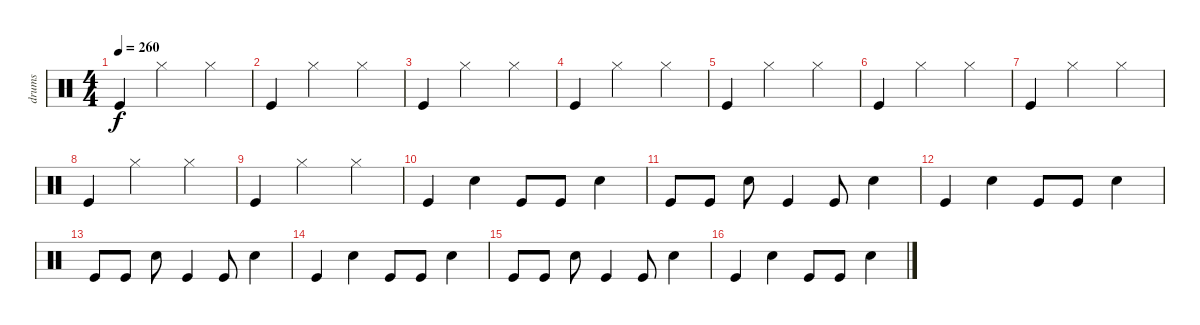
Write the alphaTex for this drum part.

\track ("drums" "drums") {instrument percussion}
\staff {score}
\articulation defaults
\ts (4 4)
\tempo 260
\clef neutral
\ks c "Kick (hit)".4{dy f} "Hi-Hat (closed)".2 "Hi-Hat (closed)".4
|
"Kick (hit)".4 "Hi-Hat (closed)".2 "Hi-Hat (closed)".4 |
"Kick (hit)".4 "Hi-Hat (closed)".2 "Hi-Hat (closed)".4 |
"Kick (hit)".4 "Hi-Hat (closed)".2 "Hi-Hat (closed)".4 |
"Kick (hit)".4 "Hi-Hat (closed)".2 "Hi-Hat (closed)".4 |
"Kick (hit)".4 "Hi-Hat (closed)".2 "Hi-Hat (closed)".4 |
"Kick (hit)".4 "Hi-Hat (closed)".2 "Hi-Hat (closed)".4 |
"Kick (hit)".4 "Hi-Hat (closed)".2 "Hi-Hat (closed)".4 |
"Kick (hit)".4 "Hi-Hat (closed)".2 "Hi-Hat (closed)".4 |
"Kick (hit)".4 "Snare (hit) 2".4 "Kick (hit)".8 "Kick (hit)".8 "Snare (hit) 2".4 |
"Kick (hit)".8 "Kick (hit)".8 "Snare (hit) 2".8 "Kick (hit)".4 "Kick (hit)".8 "Snare (hit) 2".4 |
"Kick (hit)".4 "Snare (hit) 2".4 "Kick (hit)".8 "Kick (hit)".8 "Snare (hit) 2".4 |
"Kick (hit)".8 "Kick (hit)".8 "Snare (hit) 2".8 "Kick (hit)".4 "Kick (hit)".8 "Snare (hit) 2".4 |
"Kick (hit)".4 "Snare (hit) 2".4 "Kick (hit)".8 "Kick (hit)".8 "Snare (hit) 2".4 |
"Kick (hit)".8 "Kick (hit)".8 "Snare (hit) 2".8 "Kick (hit)".4 "Kick (hit)".8 "Snare (hit) 2".4 |
"Kick (hit)".4 "Snare (hit) 2".4 "Kick (hit)".8 "Kick (hit)".8 "Snare (hit) 2".4
